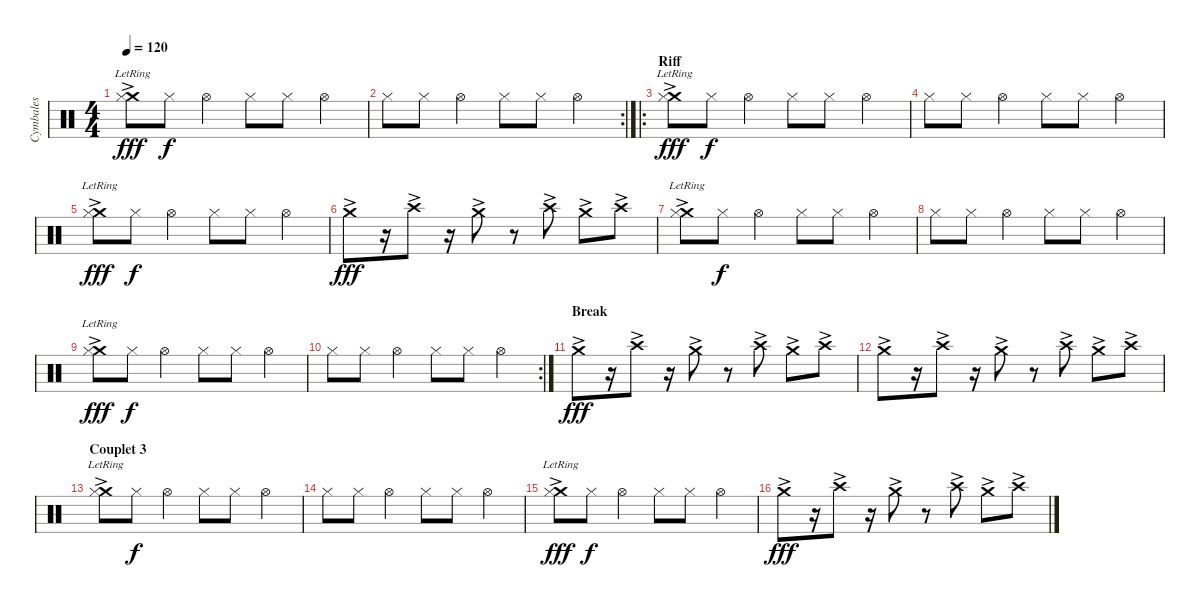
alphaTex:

\track ("Cymbales" "Cymbales") {instrument percussion}
\staff {score}
\articulation defaults
\ts (4 4)
\tempo 120
\clef neutral
\ks c
("Crash medium (hit)"{ac lr} "Hi-Hat (closed)").8{dy fff} "Hi-Hat (closed)".8{dy f} "Hi-Hat (open)".4 "Hi-Hat (closed)".8 "Hi-Hat (closed)".8 "Hi-Hat (open)".4 |
\rc 2 "Hi-Hat (closed)".8 "Hi-Hat (closed)".8 "Hi-Hat (open)".4 "Hi-Hat (closed)".8 "Hi-Hat (closed)".8 "Hi-Hat (open)".4
|
\ro
\section ("" "Riff")
("Crash medium (hit)"{ac lr} "Hi-Hat (closed)").8{dy fff} "Hi-Hat (closed)".8{dy f} "Hi-Hat (open)".4 "Hi-Hat (closed)".8 "Hi-Hat (closed)".8 "Hi-Hat (open)".4 |
"Hi-Hat (closed)".8 "Hi-Hat (closed)".8 "Hi-Hat (open)".4 "Hi-Hat (closed)".8 "Hi-Hat (closed)".8 "Hi-Hat (open)".4 |
("Crash medium (hit)"{ac lr} "Hi-Hat (closed)").8{dy fff} "Hi-Hat (closed)".8{dy f} "Hi-Hat (open)".4 "Hi-Hat (closed)".8 "Hi-Hat (closed)".8 "Hi-Hat (open)".4 |
"Crash medium (hit)"{ac}.8{dy fff} r.16 "Crash high (hit)"{ac}.8 r.16 "Crash medium (hit)"{ac}.8 r.8 "Crash high (hit)"{ac}.8 "Crash medium (hit)"{ac}.8 "Crash high (hit)"{ac}.8 |
("Crash medium (hit)"{ac lr} "Hi-Hat (closed)").8 "Hi-Hat (closed)".8{dy f} "Hi-Hat (open)".4 "Hi-Hat (closed)".8 "Hi-Hat (closed)".8 "Hi-Hat (open)".4 |
"Hi-Hat (closed)".8 "Hi-Hat (closed)".8 "Hi-Hat (open)".4 "Hi-Hat (closed)".8 "Hi-Hat (closed)".8 "Hi-Hat (open)".4 |
("Crash medium (hit)"{ac lr} "Hi-Hat (closed)").8{dy fff} "Hi-Hat (closed)".8{dy f} "Hi-Hat (open)".4 "Hi-Hat (closed)".8 "Hi-Hat (closed)".8 "Hi-Hat (open)".4 |
\rc 2 "Hi-Hat (closed)".8 "Hi-Hat (closed)".8 "Hi-Hat (open)".4 "Hi-Hat (closed)".8 "Hi-Hat (closed)".8 "Hi-Hat (open)".4
|
\section ("" "Break")
"Crash medium (hit)"{ac}.8{dy fff} r.16 "Crash high (hit)"{ac}.8 r.16 "Crash medium (hit)"{ac}.8 r.8 "Crash high (hit)"{ac}.8 "Crash medium (hit)"{ac}.8 "Crash high (hit)"{ac}.8 |
"Crash medium (hit)"{ac}.8 r.16 "Crash high (hit)"{ac}.8 r.16 "Crash medium (hit)"{ac}.8 r.8 "Crash high (hit)"{ac}.8 "Crash medium (hit)"{ac}.8 "Crash high (hit)"{ac}.8 |
\section ("" "Couplet 3")
("Crash medium (hit)"{ac lr} "Hi-Hat (closed)").8 "Hi-Hat (closed)".8{dy f} "Hi-Hat (open)".4 "Hi-Hat (closed)".8 "Hi-Hat (closed)".8 "Hi-Hat (open)".4 |
"Hi-Hat (closed)".8 "Hi-Hat (closed)".8 "Hi-Hat (open)".4 "Hi-Hat (closed)".8 "Hi-Hat (closed)".8 "Hi-Hat (open)".4 |
("Crash medium (hit)"{ac lr} "Hi-Hat (closed)").8{dy fff} "Hi-Hat (closed)".8{dy f} "Hi-Hat (open)".4 "Hi-Hat (closed)".8 "Hi-Hat (closed)".8 "Hi-Hat (open)".4 |
"Crash medium (hit)"{ac}.8{dy fff} r.16 "Crash high (hit)"{ac}.8 r.16 "Crash medium (hit)"{ac}.8 r.8 "Crash high (hit)"{ac}.8 "Crash medium (hit)"{ac}.8 "Crash high (hit)"{ac}.8
